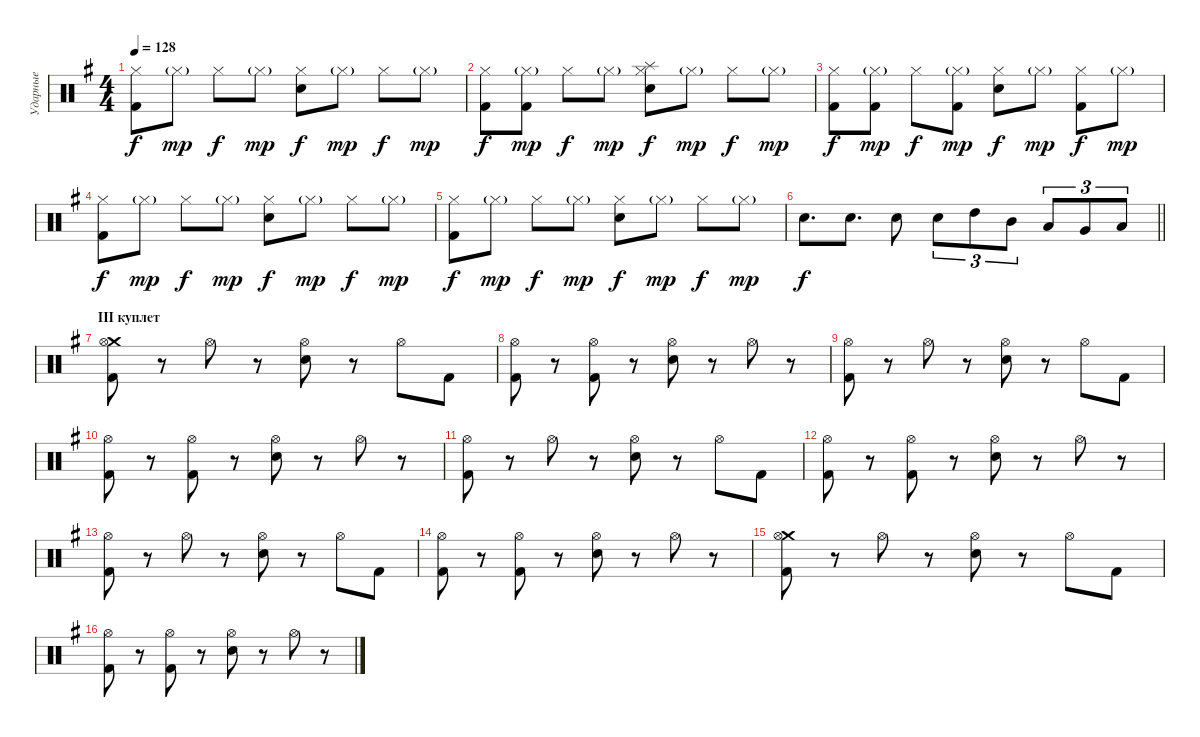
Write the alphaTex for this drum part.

\track ("Ударные" "Ударные") {instrument percussion}
\staff {score}
\articulation defaults
\ts (4 4)
\tempo 128
\clef neutral
\ks eminor
("Hi-Hat (closed)" "Kick (hit) 2").8{dy f} "Hi-Hat (closed)"{g}.8{dy mp} "Hi-Hat (closed)".8{dy f} "Hi-Hat (closed)"{g}.8{dy mp} ("Hi-Hat (closed)" "Electric Snare (hit)").8{dy f} "Hi-Hat (closed)"{g}.8{dy mp} "Hi-Hat (closed)".8{dy f} "Hi-Hat (closed)"{g}.8{dy mp} |
("Hi-Hat (closed)" "Kick (hit) 2").8{dy f} ("Hi-Hat (closed)"{g} "Kick (hit) 2").8{dy mp} "Hi-Hat (closed)".8{dy f} "Hi-Hat (closed)"{g}.8{dy mp} ("Splash (hit)" "Hi-Hat (closed)" "Electric Snare (hit)").8{dy f} "Hi-Hat (closed)"{g}.8{dy mp} "Hi-Hat (closed)".8{dy f} "Hi-Hat (closed)"{g}.8{dy mp} |
("Hi-Hat (closed)" "Kick (hit) 2").8{dy f} ("Hi-Hat (closed)"{g} "Kick (hit) 2").8{dy mp} "Hi-Hat (closed)".8{dy f} ("Hi-Hat (closed)"{g} "Kick (hit) 2").8{dy mp} ("Hi-Hat (closed)" "Electric Snare (hit)").8{dy f} "Hi-Hat (closed)"{g}.8{dy mp} ("Hi-Hat (closed)" "Kick (hit) 2").8{dy f} "Hi-Hat (closed)"{g}.8{dy mp} |
("Hi-Hat (closed)" "Kick (hit) 2").8{dy f} "Hi-Hat (closed)"{g}.8{dy mp} "Hi-Hat (closed)".8{dy f} "Hi-Hat (closed)"{g}.8{dy mp} ("Hi-Hat (closed)" "Electric Snare (hit)").8{dy f} "Hi-Hat (closed)"{g}.8{dy mp} "Hi-Hat (closed)".8{dy f} "Hi-Hat (closed)"{g}.8{dy mp} |
("Hi-Hat (closed)" "Kick (hit) 2").8{dy f} "Hi-Hat (closed)"{g}.8{dy mp} "Hi-Hat (closed)".8{dy f} "Hi-Hat (closed)"{g}.8{dy mp} ("Hi-Hat (closed)" "Electric Snare (hit)").8{dy f} "Hi-Hat (closed)"{g}.8{dy mp} "Hi-Hat (closed)".8{dy f} "Hi-Hat (closed)"{g}.8{dy mp} |
\barLineRight lightlight "Electric Snare (hit)".8{d dy f} "Electric Snare (hit)".8{d} "Electric Snare (hit)".8 "Electric Snare (hit)".8{tu (3 2)} "High Tom (hit)".8{tu (3 2)} "Mid Tom (hit)".8{tu (3 2)} "Low Tom (hit)".8{tu (3 2)} "Very Low Tom (hit)".8{tu (3 2)} "Low Floor Tom (hit)".8{tu (3 2)}
|
\section ("" "III куплет")
("Crash medium (hit)" "Hi-Hat (open)" "Kick (hit) 2").8 r.8 "Hi-Hat (open)".8 r.8 ("Hi-Hat (open)" "Electric Snare (hit)").8 r.8 "Hi-Hat (open)".8 "Kick (hit) 2".8 |
("Hi-Hat (open)" "Kick (hit) 2").8 r.8 ("Hi-Hat (open)" "Kick (hit) 2").8 r.8 ("Hi-Hat (open)" "Electric Snare (hit)").8 r.8 "Hi-Hat (open)".8 r.8 |
("Hi-Hat (open)" "Kick (hit) 2").8 r.8 "Hi-Hat (open)".8 r.8 ("Hi-Hat (open)" "Electric Snare (hit)").8 r.8 "Hi-Hat (open)".8 "Kick (hit) 2".8 |
("Hi-Hat (open)" "Kick (hit) 2").8 r.8 ("Hi-Hat (open)" "Kick (hit) 2").8 r.8 ("Hi-Hat (open)" "Electric Snare (hit)").8 r.8 "Hi-Hat (open)".8 r.8 |
("Hi-Hat (open)" "Kick (hit) 2").8 r.8 "Hi-Hat (open)".8 r.8 ("Hi-Hat (open)" "Electric Snare (hit)").8 r.8 "Hi-Hat (open)".8 "Kick (hit) 2".8 |
("Hi-Hat (open)" "Kick (hit) 2").8 r.8 ("Hi-Hat (open)" "Kick (hit) 2").8 r.8 ("Hi-Hat (open)" "Electric Snare (hit)").8 r.8 "Hi-Hat (open)".8 r.8 |
("Hi-Hat (open)" "Kick (hit) 2").8 r.8 "Hi-Hat (open)".8 r.8 ("Hi-Hat (open)" "Electric Snare (hit)").8 r.8 "Hi-Hat (open)".8 "Kick (hit) 2".8 |
("Hi-Hat (open)" "Kick (hit) 2").8 r.8 ("Hi-Hat (open)" "Kick (hit) 2").8 r.8 ("Hi-Hat (open)" "Electric Snare (hit)").8 r.8 "Hi-Hat (open)".8 r.8 |
("Crash medium (hit)" "Hi-Hat (open)" "Kick (hit) 2").8 r.8 "Hi-Hat (open)".8 r.8 ("Hi-Hat (open)" "Electric Snare (hit)").8 r.8 "Hi-Hat (open)".8 "Kick (hit) 2".8 |
("Hi-Hat (open)" "Kick (hit) 2").8 r.8 ("Hi-Hat (open)" "Kick (hit) 2").8 r.8 ("Hi-Hat (open)" "Electric Snare (hit)").8 r.8 "Hi-Hat (open)".8 r.8
